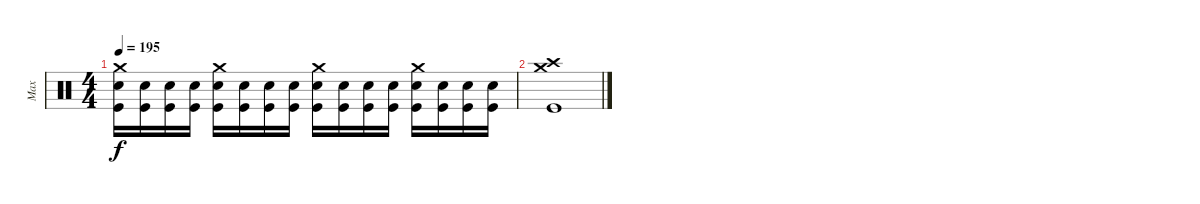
\track ("Max" "Max") {instrument percussion}
\staff {score}
\articulation defaults
\ts (4 4)
\tempo 195
\clef neutral
\ks c
("Crash medium (hit)" "Electric Snare (hit)" "Kick (hit)").16{dy f} ("Electric Snare (hit)" "Kick (hit)").16 ("Electric Snare (hit)" "Kick (hit)").16 ("Electric Snare (hit)" "Kick (hit)").16 ("Crash medium (hit)" "Electric Snare (hit)" "Kick (hit)").16 ("Electric Snare (hit)" "Kick (hit)").16 ("Electric Snare (hit)" "Kick (hit)").16 ("Electric Snare (hit)" "Kick (hit)").16 ("Crash medium (hit)" "Electric Snare (hit)" "Kick (hit)").16 ("Electric Snare (hit)" "Kick (hit)").16 ("Electric Snare (hit)" "Kick (hit)").16 ("Electric Snare (hit)" "Kick (hit)").16 ("Crash medium (hit)" "Electric Snare (hit)" "Kick (hit)").16 ("Electric Snare (hit)" "Kick (hit)").16 ("Electric Snare (hit)" "Kick (hit)").16 ("Electric Snare (hit)" "Kick (hit)").16 |
("Crash medium (hit)" "Crash high (hit)" "Kick (hit)").1
